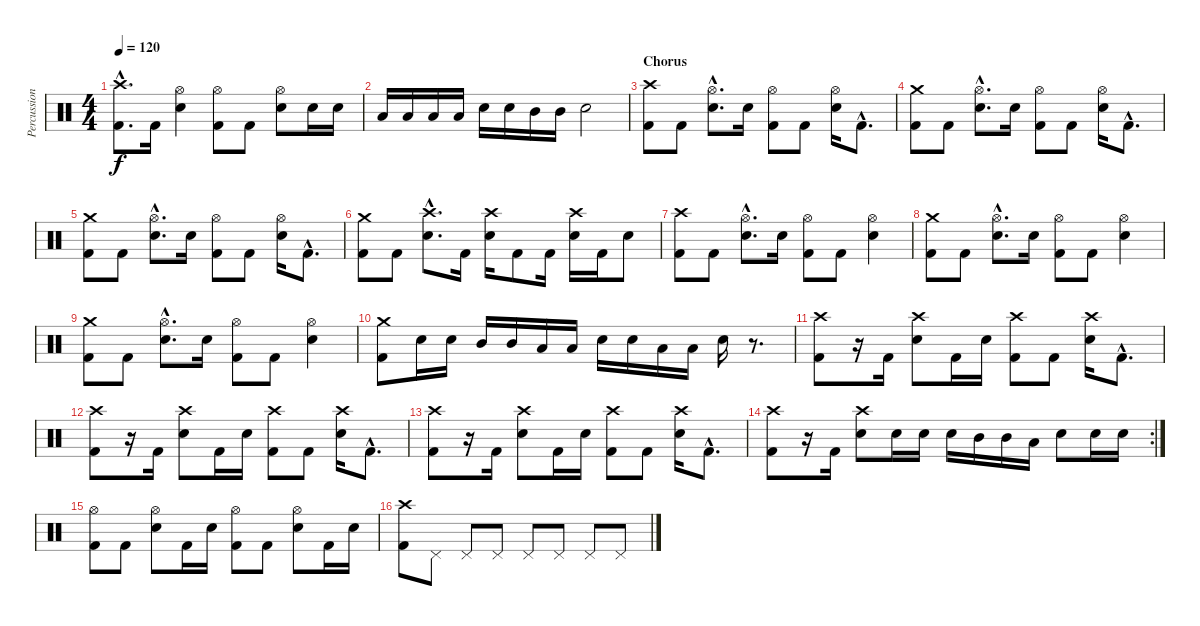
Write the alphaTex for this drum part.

\track ("Percussion" "Percussion") {instrument percussion}
\staff {score}
\articulation defaults
\ts (4 4)
\tempo 120
\clef neutral
\ks c
("Crash high (hit)"{hac} "Kick (hit) 2"{hac}).8{d dy f} "Kick (hit) 2".16 ("Hi-Hat (open)" "Snare (hit) 2").4 ("Hi-Hat (open)" "Kick (hit) 2").8 "Kick (hit) 2".8 ("Hi-Hat (open)" "Snare (hit) 2").8 "Snare (hit) 2".16 "Snare (hit) 2".16 |
"Low Tom (hit)".16 "Low Tom (hit)".16 "Low Tom (hit)".16 "Low Tom (hit)".16 "Snare (hit) 2".16 "Snare (hit) 2".16 "Mid Tom (hit)".16 "Mid Tom (hit)".16 "Snare (hit) 2".2 |
\section ("" "Chorus")
("Crash high (hit)" "Kick (hit) 2").8 "Kick (hit) 2".8 ("Hi-Hat (open)"{hac} "Snare (hit) 2"{hac}).8{d} "Snare (hit) 2".16 ("Hi-Hat (open)" "Kick (hit) 2").8 "Kick (hit) 2".8 ("Hi-Hat (open)" "Snare (hit) 2").16 "Kick (hit) 2"{hac}.8{d} |
("Crash medium (hit)" "Kick (hit) 2").8 "Kick (hit) 2".8 ("Hi-Hat (open)"{hac} "Snare (hit) 2"{hac}).8{d} "Snare (hit) 2".16 ("Hi-Hat (open)" "Kick (hit) 2").8 "Kick (hit) 2".8 ("Hi-Hat (open)" "Snare (hit) 2").16 "Kick (hit) 2"{hac}.8{d} |
("Crash medium (hit)" "Kick (hit) 2").8 "Kick (hit) 2".8 ("Hi-Hat (open)"{hac} "Snare (hit) 2"{hac}).8{d} "Snare (hit) 2".16 ("Hi-Hat (open)" "Kick (hit) 2").8 "Kick (hit) 2".8 ("Hi-Hat (open)" "Snare (hit) 2").16 "Kick (hit) 2"{hac}.8{d} |
("Crash medium (hit)" "Kick (hit) 2").8 "Kick (hit) 2".8 ("Crash high (hit)"{hac} "Snare (hit) 2"{hac}).8{d} "Kick (hit) 2".16 ("Crash high (hit)" "Snare (hit) 2").16 "Kick (hit) 2".8 "Kick (hit) 2".16 ("Crash high (hit)" "Snare (hit) 2").16 "Kick (hit) 2".16 "Snare (hit) 2".8 |
("Crash high (hit)" "Kick (hit) 2").8 "Kick (hit) 2".8 ("Hi-Hat (open)"{hac} "Snare (hit) 2"{hac}).8{d} "Snare (hit) 2".16 ("Hi-Hat (open)" "Kick (hit) 2").8 "Kick (hit) 2".8 ("Hi-Hat (open)" "Snare (hit) 2").4 |
("Crash medium (hit)" "Kick (hit) 2").8 "Kick (hit) 2".8 ("Hi-Hat (open)"{hac} "Snare (hit) 2"{hac}).8{d} "Snare (hit) 2".16 ("Hi-Hat (open)" "Kick (hit) 2").8 "Kick (hit) 2".8 ("Hi-Hat (open)" "Snare (hit) 2").4 |
("Crash medium (hit)" "Kick (hit) 2").8 "Kick (hit) 2".8 ("Hi-Hat (open)"{hac} "Snare (hit) 2"{hac}).8{d} "Snare (hit) 2".16 ("Hi-Hat (open)" "Kick (hit) 2").8 "Kick (hit) 2".8 ("Hi-Hat (open)" "Snare (hit) 2").4 |
("Crash medium (hit)" "Kick (hit) 2").8 "Snare (hit) 2".16 "Snare (hit) 2".16 "Mid Tom (hit)".16 "Mid Tom (hit)".16 "Low Tom (hit)".16 "Low Tom (hit)".16 "Snare (hit) 2".16 "Snare (hit) 2".16 "Low Tom (hit)".16 "Low Tom (hit)".16 "Snare (hit) 2".16 r.8{d} |
("Crash high (hit)" "Kick (hit) 2").8 r.16 "Kick (hit) 2".16 ("Crash high (hit)" "Snare (hit) 2").8 "Kick (hit) 2".16 "Snare (hit) 2".16 ("Crash high (hit)" "Kick (hit) 2").8 "Kick (hit) 2".8 ("Crash high (hit)" "Snare (hit) 2").16 "Kick (hit) 2"{hac}.8{d} |
("Crash high (hit)" "Kick (hit) 2").8 r.16 "Kick (hit) 2".16 ("Crash high (hit)" "Snare (hit) 2").8 "Kick (hit) 2".16 "Snare (hit) 2".16 ("Crash high (hit)" "Kick (hit) 2").8 "Kick (hit) 2".8 ("Crash high (hit)" "Snare (hit) 2").16 "Kick (hit) 2"{hac}.8{d} |
("Crash high (hit)" "Kick (hit) 2").8 r.16 "Kick (hit) 2".16 ("Crash high (hit)" "Snare (hit) 2").8 "Kick (hit) 2".16 "Snare (hit) 2".16 ("Crash high (hit)" "Kick (hit) 2").8 "Kick (hit) 2".8 ("Crash high (hit)" "Snare (hit) 2").16 "Kick (hit) 2"{hac}.8{d} |
\rc 2
("Crash high (hit)" "Kick (hit) 2").8 r.16 "Kick (hit) 2".16 ("Crash high (hit)" "Snare (hit) 2").8 "Snare (hit) 2".16 "Snare (hit) 2".16 "Snare (hit) 2".16 "Mid Tom (hit)".16 "Mid Tom (hit)".16 "Low Tom (hit)".16 "Snare (hit) 2".8 "Snare (hit) 2".16 "Snare (hit) 2".16 |
("Hi-Hat (open)" "Kick (hit) 2").8 "Kick (hit) 2".8 ("Hi-Hat (open)" "Snare (hit) 2").8 "Kick (hit) 2".16 "Snare (hit) 2".16 ("Hi-Hat (open)" "Kick (hit) 2").8 "Kick (hit) 2".8 ("Hi-Hat (open)" "Snare (hit) 2").8 "Kick (hit) 2".16 "Snare (hit) 2".16 |
("Crash high (hit)" "Kick (hit) 2").8 "Pedal Hi-Hat (hit)".8 "Pedal Hi-Hat (hit)".8 "Pedal Hi-Hat (hit)".8 "Pedal Hi-Hat (hit)".8 "Pedal Hi-Hat (hit)".8 "Pedal Hi-Hat (hit)".8 "Pedal Hi-Hat (hit)".8
